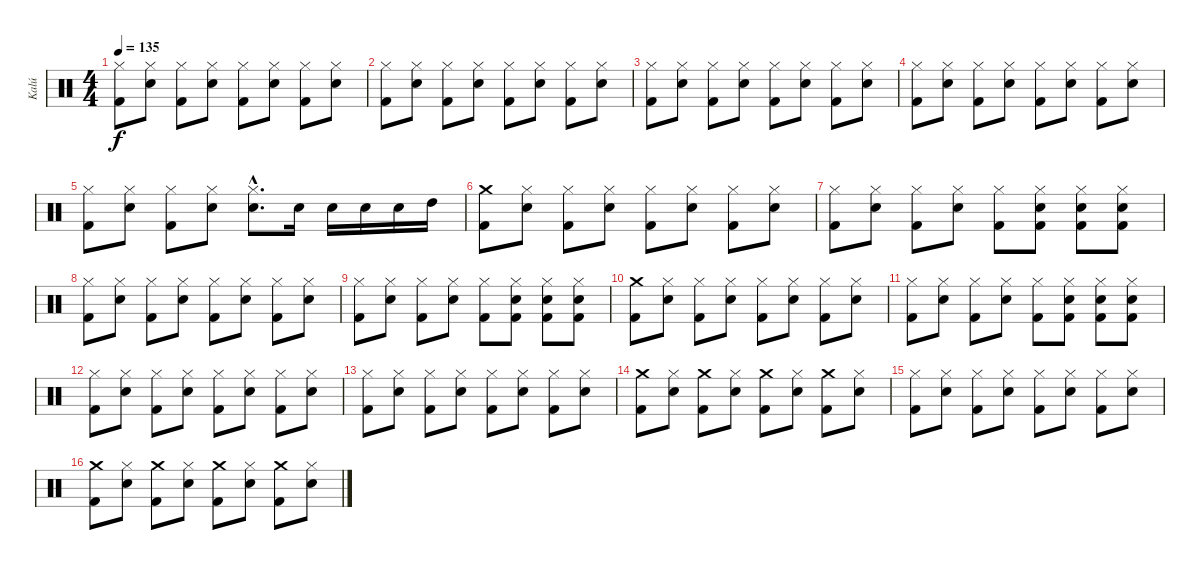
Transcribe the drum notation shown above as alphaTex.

\track ("Kalú" "Kalú") {instrument percussion}
\staff {score}
\articulation defaults
\ts (4 4)
\tempo 135
\clef neutral
\ks c
("Hi-Hat (closed)" "Kick (hit) 2").8{dy f} ("Hi-Hat (closed)" "Electric Snare (hit)").8 ("Hi-Hat (closed)" "Kick (hit) 2").8 ("Hi-Hat (closed)" "Electric Snare (hit)").8 ("Hi-Hat (closed)" "Kick (hit) 2").8 ("Hi-Hat (closed)" "Electric Snare (hit)").8 ("Hi-Hat (closed)" "Kick (hit) 2").8 ("Hi-Hat (closed)" "Electric Snare (hit)").8 |
("Hi-Hat (closed)" "Kick (hit) 2").8 ("Hi-Hat (closed)" "Electric Snare (hit)").8 ("Hi-Hat (closed)" "Kick (hit) 2").8 ("Hi-Hat (closed)" "Electric Snare (hit)").8 ("Hi-Hat (closed)" "Kick (hit) 2").8 ("Hi-Hat (closed)" "Electric Snare (hit)").8 ("Hi-Hat (closed)" "Kick (hit) 2").8 ("Hi-Hat (closed)" "Electric Snare (hit)").8 |
("Hi-Hat (closed)" "Kick (hit) 2").8 ("Hi-Hat (closed)" "Electric Snare (hit)").8 ("Hi-Hat (closed)" "Kick (hit) 2").8 ("Hi-Hat (closed)" "Electric Snare (hit)").8 ("Hi-Hat (closed)" "Kick (hit) 2").8 ("Hi-Hat (closed)" "Electric Snare (hit)").8 ("Hi-Hat (closed)" "Kick (hit) 2").8 ("Hi-Hat (closed)" "Electric Snare (hit)").8 |
("Hi-Hat (closed)" "Kick (hit) 2").8 ("Hi-Hat (closed)" "Electric Snare (hit)").8 ("Hi-Hat (closed)" "Kick (hit) 2").8 ("Hi-Hat (closed)" "Electric Snare (hit)").8 ("Hi-Hat (closed)" "Kick (hit) 2").8 ("Hi-Hat (closed)" "Electric Snare (hit)").8 ("Hi-Hat (closed)" "Kick (hit) 2").8 ("Hi-Hat (closed)" "Electric Snare (hit)").8 |
("Hi-Hat (closed)" "Kick (hit) 2").8 ("Hi-Hat (closed)" "Electric Snare (hit)").8 ("Hi-Hat (closed)" "Kick (hit) 2").8 ("Hi-Hat (closed)" "Electric Snare (hit)").8 ("Hi-Hat (closed)"{hac} "Electric Snare (hit)"{hac}).8{d} "Electric Snare (hit)".16 "Electric Snare (hit)".16 "Electric Snare (hit)".16 "Electric Snare (hit)".16 "High Tom (hit)".16 |
("Crash medium (hit)" "Kick (hit) 2").8 ("Hi-Hat (closed)" "Electric Snare (hit)").8 ("Hi-Hat (closed)" "Kick (hit) 2").8 ("Hi-Hat (closed)" "Electric Snare (hit)").8 ("Hi-Hat (closed)" "Kick (hit) 2").8 ("Hi-Hat (closed)" "Electric Snare (hit)").8 ("Hi-Hat (closed)" "Kick (hit) 2").8 ("Hi-Hat (closed)" "Electric Snare (hit)").8 |
("Hi-Hat (closed)" "Kick (hit) 2").8 ("Hi-Hat (closed)" "Electric Snare (hit)").8 ("Hi-Hat (closed)" "Kick (hit) 2").8 ("Hi-Hat (closed)" "Electric Snare (hit)").8 ("Hi-Hat (closed)" "Kick (hit) 2").8 ("Hi-Hat (closed)" "Kick (hit) 2" "Electric Snare (hit)").8 ("Hi-Hat (closed)" "Kick (hit) 2" "Electric Snare (hit)").8 ("Hi-Hat (closed)" "Kick (hit) 2" "Electric Snare (hit)").8 |
("Hi-Hat (closed)" "Kick (hit) 2").8 ("Hi-Hat (closed)" "Electric Snare (hit)").8 ("Hi-Hat (closed)" "Kick (hit) 2").8 ("Hi-Hat (closed)" "Electric Snare (hit)").8 ("Hi-Hat (closed)" "Kick (hit) 2").8 ("Hi-Hat (closed)" "Electric Snare (hit)").8 ("Hi-Hat (closed)" "Kick (hit) 2").8 ("Hi-Hat (closed)" "Electric Snare (hit)").8 |
("Hi-Hat (closed)" "Kick (hit) 2").8 ("Hi-Hat (closed)" "Electric Snare (hit)").8 ("Hi-Hat (closed)" "Kick (hit) 2").8 ("Hi-Hat (closed)" "Electric Snare (hit)").8 ("Hi-Hat (closed)" "Kick (hit) 2").8 ("Hi-Hat (closed)" "Kick (hit) 2" "Electric Snare (hit)").8 ("Hi-Hat (closed)" "Kick (hit) 2" "Electric Snare (hit)").8 ("Hi-Hat (closed)" "Kick (hit) 2" "Electric Snare (hit)").8 |
("Crash medium (hit)" "Kick (hit) 2").8 ("Hi-Hat (closed)" "Electric Snare (hit)").8 ("Hi-Hat (closed)" "Kick (hit) 2").8 ("Hi-Hat (closed)" "Electric Snare (hit)").8 ("Hi-Hat (closed)" "Kick (hit) 2").8 ("Hi-Hat (closed)" "Electric Snare (hit)").8 ("Hi-Hat (closed)" "Kick (hit) 2").8 ("Hi-Hat (closed)" "Electric Snare (hit)").8 |
("Hi-Hat (closed)" "Kick (hit) 2").8 ("Hi-Hat (closed)" "Electric Snare (hit)").8 ("Hi-Hat (closed)" "Kick (hit) 2").8 ("Hi-Hat (closed)" "Electric Snare (hit)").8 ("Hi-Hat (closed)" "Kick (hit) 2").8 ("Hi-Hat (closed)" "Kick (hit) 2" "Electric Snare (hit)").8 ("Hi-Hat (closed)" "Kick (hit) 2" "Electric Snare (hit)").8 ("Hi-Hat (closed)" "Kick (hit) 2" "Electric Snare (hit)").8 |
("Hi-Hat (closed)" "Kick (hit) 2").8 ("Hi-Hat (closed)" "Electric Snare (hit)").8 ("Hi-Hat (closed)" "Kick (hit) 2").8 ("Hi-Hat (closed)" "Electric Snare (hit)").8 ("Hi-Hat (closed)" "Kick (hit) 2").8 ("Hi-Hat (closed)" "Electric Snare (hit)").8 ("Hi-Hat (closed)" "Kick (hit) 2").8 ("Hi-Hat (closed)" "Electric Snare (hit)").8 |
("Hi-Hat (closed)" "Kick (hit) 2").8 ("Hi-Hat (closed)" "Electric Snare (hit)").8 ("Hi-Hat (closed)" "Kick (hit) 2").8 ("Hi-Hat (closed)" "Electric Snare (hit)").8 ("Hi-Hat (closed)" "Kick (hit) 2").8 ("Hi-Hat (closed)" "Electric Snare (hit)").8 ("Hi-Hat (closed)" "Kick (hit) 2").8 ("Hi-Hat (closed)" "Electric Snare (hit)").8 |
("Crash medium (hit)" "Kick (hit) 2").8 ("Hi-Hat (closed)" "Electric Snare (hit)").8 ("Crash medium (hit)" "Kick (hit) 2").8 ("Hi-Hat (closed)" "Electric Snare (hit)").8 ("Crash medium (hit)" "Kick (hit) 2").8 ("Hi-Hat (closed)" "Electric Snare (hit)").8 ("Crash medium (hit)" "Kick (hit) 2").8 ("Hi-Hat (closed)" "Electric Snare (hit)").8 |
("Hi-Hat (closed)" "Kick (hit) 2").8 ("Hi-Hat (closed)" "Electric Snare (hit)").8 ("Hi-Hat (closed)" "Kick (hit) 2").8 ("Hi-Hat (closed)" "Electric Snare (hit)").8 ("Hi-Hat (closed)" "Kick (hit) 2").8 ("Hi-Hat (closed)" "Electric Snare (hit)").8 ("Hi-Hat (closed)" "Kick (hit) 2").8 ("Hi-Hat (closed)" "Electric Snare (hit)").8 |
("Crash medium (hit)" "Kick (hit) 2").8 ("Hi-Hat (closed)" "Electric Snare (hit)").8 ("Crash medium (hit)" "Kick (hit) 2").8 ("Hi-Hat (closed)" "Electric Snare (hit)").8 ("Crash medium (hit)" "Kick (hit) 2").8 ("Hi-Hat (closed)" "Electric Snare (hit)").8 ("Crash medium (hit)" "Kick (hit) 2").8 ("Hi-Hat (closed)" "Electric Snare (hit)").8
